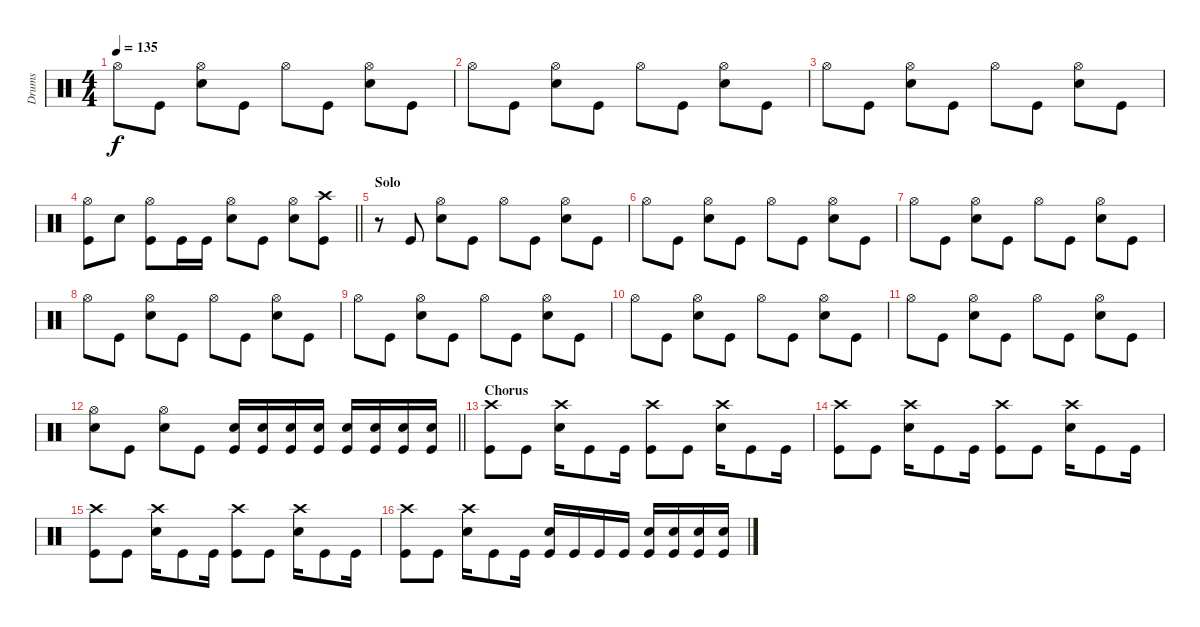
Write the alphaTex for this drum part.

\track ("Drums" "Drums") {instrument percussion}
\staff {score}
\articulation defaults
\ts (4 4)
\tempo 135
\clef neutral
\ks c "Hi-Hat (open)".8{dy f} "Kick (hit)".8
("Snare (hit) 2" "Hi-Hat (open)").8 "Kick (hit)".8 "Hi-Hat (open)".8 "Kick (hit)".8 ("Snare (hit) 2" "Hi-Hat (open)").8 "Kick (hit)".8 |
"Hi-Hat (open)".8 "Kick (hit)".8 ("Snare (hit) 2" "Hi-Hat (open)").8 "Kick (hit)".8 "Hi-Hat (open)".8 "Kick (hit)".8 ("Snare (hit) 2" "Hi-Hat (open)").8 "Kick (hit)".8 |
"Hi-Hat (open)".8 "Kick (hit)".8 ("Snare (hit) 2" "Hi-Hat (open)").8 "Kick (hit)".8 "Hi-Hat (open)".8 "Kick (hit)".8 ("Snare (hit) 2" "Hi-Hat (open)").8 "Kick (hit)".8 |
\barLineRight lightlight
("Kick (hit)" "Hi-Hat (open)").8 "Snare (hit) 2".8 ("Kick (hit)" "Hi-Hat (open)").8 "Kick (hit)".16 "Kick (hit)".16 ("Snare (hit) 2" "Hi-Hat (open)").8 "Kick (hit)".8 ("Snare (hit) 2" "Hi-Hat (open)").8 ("Kick (hit)" "Crash high (hit)").8 |
\section ("" "Solo")
r.8 "Kick (hit)".8 ("Snare (hit) 2" "Hi-Hat (open)").8 "Kick (hit)".8 "Hi-Hat (open)".8 "Kick (hit)".8 ("Snare (hit) 2" "Hi-Hat (open)").8 "Kick (hit)".8 |
"Hi-Hat (open)".8 "Kick (hit)".8 ("Snare (hit) 2" "Hi-Hat (open)").8 "Kick (hit)".8 "Hi-Hat (open)".8 "Kick (hit)".8 ("Snare (hit) 2" "Hi-Hat (open)").8 "Kick (hit)".8 |
"Hi-Hat (open)".8 "Kick (hit)".8 ("Snare (hit) 2" "Hi-Hat (open)").8 "Kick (hit)".8 "Hi-Hat (open)".8 "Kick (hit)".8 ("Snare (hit) 2" "Hi-Hat (open)").8 "Kick (hit)".8 |
"Hi-Hat (open)".8 "Kick (hit)".8 ("Snare (hit) 2" "Hi-Hat (open)").8 "Kick (hit)".8 "Hi-Hat (open)".8 "Kick (hit)".8 ("Snare (hit) 2" "Hi-Hat (open)").8 "Kick (hit)".8 |
"Hi-Hat (open)".8 "Kick (hit)".8 ("Snare (hit) 2" "Hi-Hat (open)").8 "Kick (hit)".8 "Hi-Hat (open)".8 "Kick (hit)".8 ("Snare (hit) 2" "Hi-Hat (open)").8 "Kick (hit)".8 |
"Hi-Hat (open)".8 "Kick (hit)".8 ("Snare (hit) 2" "Hi-Hat (open)").8 "Kick (hit)".8 "Hi-Hat (open)".8 "Kick (hit)".8 ("Snare (hit) 2" "Hi-Hat (open)").8 "Kick (hit)".8 |
"Hi-Hat (open)".8 "Kick (hit)".8 ("Snare (hit) 2" "Hi-Hat (open)").8 "Kick (hit)".8 "Hi-Hat (open)".8 "Kick (hit)".8 ("Snare (hit) 2" "Hi-Hat (open)").8 "Kick (hit)".8 |
\barLineRight lightlight
("Snare (hit) 2" "Hi-Hat (open)").8 "Kick (hit)".8 ("Snare (hit) 2" "Hi-Hat (open)").8 "Kick (hit)".8 ("Kick (hit)" "Snare (hit) 2").16 ("Kick (hit)" "Snare (hit) 2").16 ("Kick (hit)" "Snare (hit) 2").16 ("Kick (hit)" "Snare (hit) 2").16 ("Kick (hit)" "Snare (hit) 2").16 ("Kick (hit)" "Snare (hit) 2").16 ("Kick (hit)" "Snare (hit) 2").16 ("Kick (hit)" "Snare (hit) 2").16 |
\section ("" "Chorus")
("Kick (hit)" "Crash high (hit)").8 "Kick (hit)".8 ("Snare (hit) 2" "Crash high (hit)").16 "Kick (hit)".8 "Kick (hit)".16 ("Kick (hit)" "Crash high (hit)").8 "Kick (hit)".8 ("Snare (hit) 2" "Crash high (hit)").16 "Kick (hit)".8 "Kick (hit)".16 |
("Kick (hit)" "Crash high (hit)").8 "Kick (hit)".8 ("Snare (hit) 2" "Crash high (hit)").16 "Kick (hit)".8 "Kick (hit)".16 ("Kick (hit)" "Crash high (hit)").8 "Kick (hit)".8 ("Snare (hit) 2" "Crash high (hit)").16 "Kick (hit)".8 "Kick (hit)".16 |
("Kick (hit)" "Crash high (hit)").8 "Kick (hit)".8 ("Snare (hit) 2" "Crash high (hit)").16 "Kick (hit)".8 "Kick (hit)".16 ("Kick (hit)" "Crash high (hit)").8 "Kick (hit)".8 ("Snare (hit) 2" "Crash high (hit)").16 "Kick (hit)".8 "Kick (hit)".16 |
("Kick (hit)" "Crash high (hit)").8 "Kick (hit)".8 ("Snare (hit) 2" "Crash high (hit)").16 "Kick (hit)".8 "Kick (hit)".16 ("Kick (hit)" "Snare (hit) 2").16 "Kick (hit)".16 "Kick (hit)".16 "Kick (hit)".16 ("Kick (hit)" "Snare (hit) 2").16 ("Kick (hit)" "Snare (hit) 2").16 ("Kick (hit)" "Snare (hit) 2").16 ("Kick (hit)" "Snare (hit) 2").16
